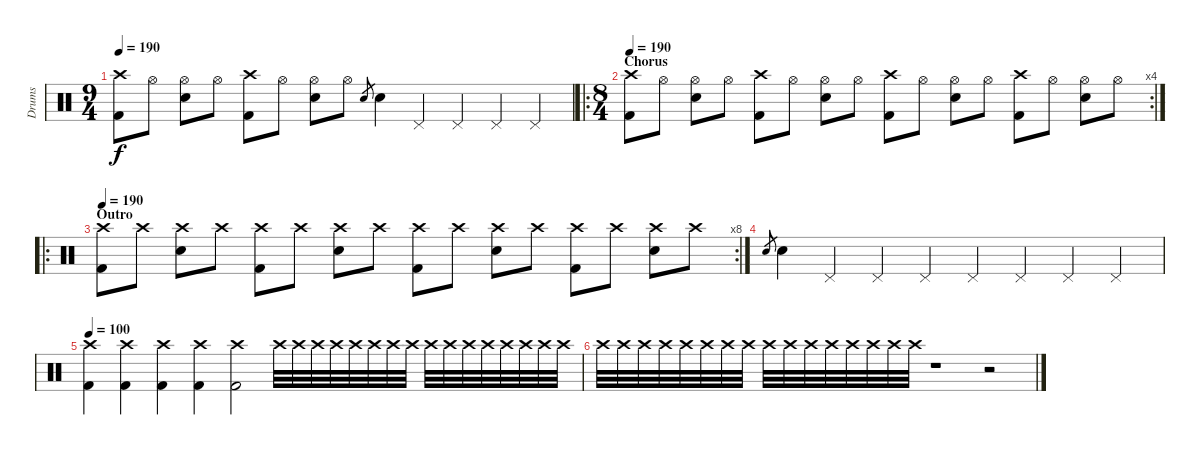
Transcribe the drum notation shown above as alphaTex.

\track ("Drums" "Drums") {instrument percussion}
\staff {score}
\articulation defaults
\ts (9 4)
\tempo 190
\clef neutral
\ks c
("Crash high (hit)" "Kick (hit) 2").8{dy f} "Hi-Hat (open)".8 ("Hi-Hat (open)" "Electric Snare (hit)").8 "Hi-Hat (open)".8 ("Crash high (hit)" "Kick (hit) 2").8 "Hi-Hat (open)".8 ("Hi-Hat (open)" "Electric Snare (hit)").8 "Hi-Hat (open)".8 "Electric Snare (hit)".8{gr} "Electric Snare (hit)".4 "Pedal Hi-Hat (hit)".4 "Pedal Hi-Hat (hit)".4 "Pedal Hi-Hat (hit)".4 "Pedal Hi-Hat (hit)".4 |
\ro
\rc 4
\ts (8 4)
\section ("" "Chorus")
\tempo 190
("Crash high (hit)" "Kick (hit) 2").8 "Hi-Hat (open)".8 ("Hi-Hat (open)" "Electric Snare (hit)").8 "Hi-Hat (open)".8 ("Crash high (hit)" "Kick (hit) 2").8 "Hi-Hat (open)".8 ("Hi-Hat (open)" "Electric Snare (hit)").8 "Hi-Hat (open)".8 ("Crash high (hit)" "Kick (hit) 2").8 "Hi-Hat (open)".8 ("Hi-Hat (open)" "Electric Snare (hit)").8 "Hi-Hat (open)".8 ("Crash high (hit)" "Kick (hit) 2").8 "Hi-Hat (open)".8 ("Hi-Hat (open)" "Electric Snare (hit)").8 "Hi-Hat (open)".8 |
\ro
\rc 8
\section ("" "Outro")
\tempo 190
("Crash high (hit)" "Kick (hit) 2").8 "Crash high (hit)".8 ("Crash high (hit)" "Electric Snare (hit)").8 "Crash high (hit)".8 ("Crash high (hit)" "Kick (hit) 2").8 "Crash high (hit)".8 ("Crash high (hit)" "Electric Snare (hit)").8 "Crash high (hit)".8 ("Crash high (hit)" "Kick (hit) 2").8 "Crash high (hit)".8 ("Crash high (hit)" "Electric Snare (hit)").8 "Crash high (hit)".8 ("Crash high (hit)" "Kick (hit) 2").8 "Crash high (hit)".8 ("Crash high (hit)" "Electric Snare (hit)").8 "Crash high (hit)".8 |
"Electric Snare (hit)".8{gr} "Electric Snare (hit)".4 "Pedal Hi-Hat (hit)".4 "Pedal Hi-Hat (hit)".4 "Pedal Hi-Hat (hit)".4 "Pedal Hi-Hat (hit)".4 "Pedal Hi-Hat (hit)".4 "Pedal Hi-Hat (hit)".4 "Pedal Hi-Hat (hit)".4 |
\tempo 100
("Crash high (hit)" "Kick (hit) 2").4 ("Crash high (hit)" "Kick (hit) 2").4 ("Crash high (hit)" "Kick (hit) 2").4 ("Crash high (hit)" "Kick (hit) 2").4 ("Crash high (hit)" "Kick (hit) 2").2 "Crash high (hit)".32 "Crash high (hit)".32 "Crash high (hit)".32 "Crash high (hit)".32 "Crash high (hit)".32 "Crash high (hit)".32 "Crash high (hit)".32 "Crash high (hit)".32 "Crash high (hit)".32 "Crash high (hit)".32 "Crash high (hit)".32 "Crash high (hit)".32 "Crash high (hit)".32 "Crash high (hit)".32 "Crash high (hit)".32 "Crash high (hit)".32 |
"Crash high (hit)".32 "Crash high (hit)".32 "Crash high (hit)".32 "Crash high (hit)".32 "Crash high (hit)".32 "Crash high (hit)".32 "Crash high (hit)".32 "Crash high (hit)".32 "Crash high (hit)".32 "Crash high (hit)".32 "Crash high (hit)".32 "Crash high (hit)".32 "Crash high (hit)".32 "Crash high (hit)".32 "Crash high (hit)".32 "Crash high (hit)".32 r.1 r.2
